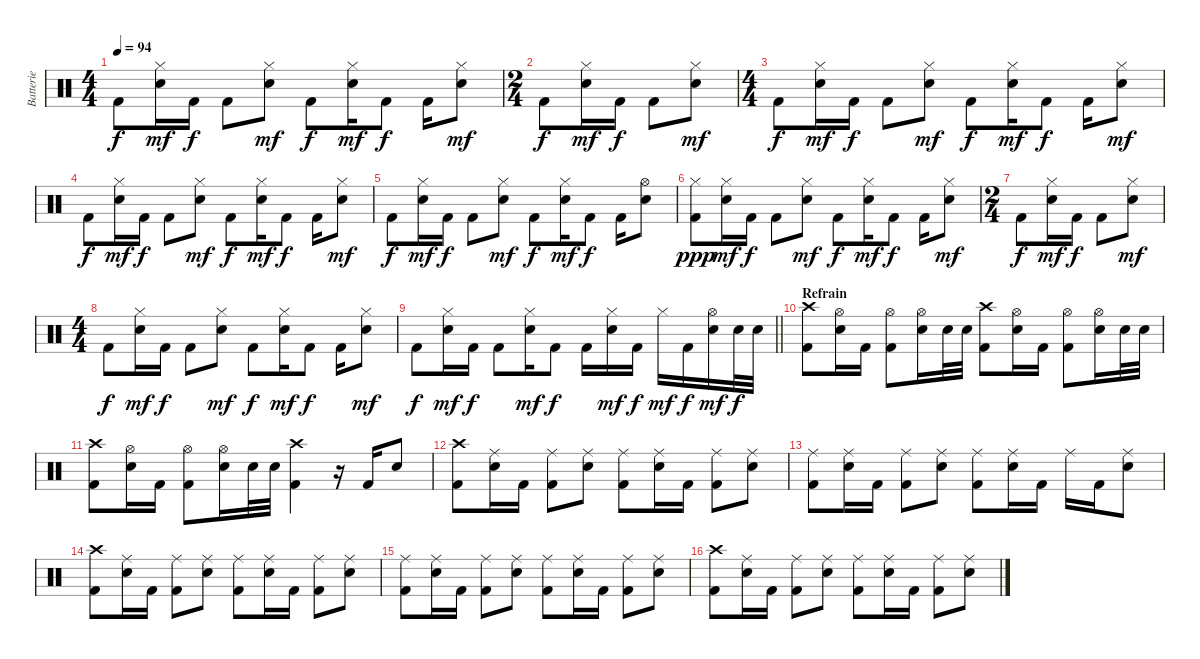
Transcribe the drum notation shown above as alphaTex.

\track ("Batterie" "Batterie") {instrument percussion}
\staff {score}
\articulation defaults
\ts (4 4)
\tempo 94
\clef neutral
\ks c "Kick (hit) 2".8{dy f}
("Hi-Hat (closed)" "Electric Snare (hit)").16{dy mf} "Kick (hit) 2".16{dy f} "Kick (hit) 2".8 ("Hi-Hat (closed)" "Electric Snare (hit)").8{dy mf} "Kick (hit) 2".8{dy f} ("Hi-Hat (closed)" "Electric Snare (hit)").16{dy mf} "Kick (hit) 2".8{dy f} "Kick (hit) 2".16 ("Hi-Hat (closed)" "Electric Snare (hit)").8{dy mf} |
\ts (2 4)
"Kick (hit) 2".8{dy f} ("Hi-Hat (closed)" "Electric Snare (hit)").16{dy mf} "Kick (hit) 2".16{dy f} "Kick (hit) 2".8 ("Hi-Hat (closed)" "Electric Snare (hit)").8{dy mf} |
\ts (4 4)
"Kick (hit) 2".8{dy f} ("Hi-Hat (closed)" "Electric Snare (hit)").16{dy mf} "Kick (hit) 2".16{dy f} "Kick (hit) 2".8 ("Hi-Hat (closed)" "Electric Snare (hit)").8{dy mf} "Kick (hit) 2".8{dy f} ("Hi-Hat (closed)" "Electric Snare (hit)").16{dy mf} "Kick (hit) 2".8{dy f} "Kick (hit) 2".16 ("Hi-Hat (closed)" "Electric Snare (hit)").8{dy mf} |
"Kick (hit) 2".8{dy f} ("Hi-Hat (closed)" "Electric Snare (hit)").16{dy mf} "Kick (hit) 2".16{dy f} "Kick (hit) 2".8 ("Hi-Hat (closed)" "Electric Snare (hit)").8{dy mf} "Kick (hit) 2".8{dy f} ("Hi-Hat (closed)" "Electric Snare (hit)").16{dy mf} "Kick (hit) 2".8{dy f} "Kick (hit) 2".16 ("Hi-Hat (closed)" "Electric Snare (hit)").8{dy mf} |
"Kick (hit) 2".8{dy f} ("Hi-Hat (closed)" "Electric Snare (hit)").16{dy mf} "Kick (hit) 2".16{dy f} "Kick (hit) 2".8 ("Hi-Hat (closed)" "Electric Snare (hit)").8{dy mf} "Kick (hit) 2".8{dy f} ("Hi-Hat (closed)" "Electric Snare (hit)").16{dy mf} "Kick (hit) 2".8{dy f} "Kick (hit) 2".16 ("Hi-Hat (open)" "Electric Snare (hit)").8 |
("Hi-Hat (closed)" "Kick (hit) 2").8{dy ppp} ("Hi-Hat (closed)" "Electric Snare (hit)").16{dy mf} "Kick (hit) 2".16{dy f} "Kick (hit) 2".8 ("Hi-Hat (closed)" "Electric Snare (hit)").8{dy mf} "Kick (hit) 2".8{dy f} ("Hi-Hat (closed)" "Electric Snare (hit)").16{dy mf} "Kick (hit) 2".8{dy f} "Kick (hit) 2".16 ("Hi-Hat (closed)" "Electric Snare (hit)").8{dy mf} |
\ts (2 4)
"Kick (hit) 2".8{dy f} ("Hi-Hat (closed)" "Electric Snare (hit)").16{dy mf} "Kick (hit) 2".16{dy f} "Kick (hit) 2".8 ("Hi-Hat (closed)" "Electric Snare (hit)").8{dy mf} |
\ts (4 4)
"Kick (hit) 2".8{dy f} ("Hi-Hat (closed)" "Electric Snare (hit)").16{dy mf} "Kick (hit) 2".16{dy f} "Kick (hit) 2".8 ("Hi-Hat (closed)" "Electric Snare (hit)").8{dy mf} "Kick (hit) 2".8{dy f} ("Hi-Hat (closed)" "Electric Snare (hit)").16{dy mf} "Kick (hit) 2".8{dy f} "Kick (hit) 2".16 ("Hi-Hat (closed)" "Electric Snare (hit)").8{dy mf} |
\barLineRight lightlight "Kick (hit) 2".8{dy f}
("Hi-Hat (closed)" "Electric Snare (hit)").16{dy mf} "Kick (hit) 2".16{dy f} "Kick (hit) 2".8 ("Hi-Hat (closed)" "Electric Snare (hit)").16{dy mf} "Kick (hit) 2".8{dy f} "Kick (hit) 2".16 ("Hi-Hat (closed)" "Electric Snare (hit)").16{dy mf} "Kick (hit) 2".16{dy f} "Hi-Hat (closed)".16{dy mf} "Kick (hit) 2".16{dy f} ("Hi-Hat (open)" "Electric Snare (hit)").16{dy mf} "Electric Snare (hit)".32{dy f} "Electric Snare (hit)".32 |
\section ("" "Refrain")
("Crash high (hit)" "Kick (hit) 2").8 ("Hi-Hat (open)" "Electric Snare (hit)").16 "Kick (hit) 2".16 ("Hi-Hat (open)" "Kick (hit) 2").8 ("Hi-Hat (open)" "Electric Snare (hit)").16 "Electric Snare (hit)".32 "Electric Snare (hit)".32 ("Crash high (hit)" "Kick (hit) 2").8 ("Hi-Hat (open)" "Electric Snare (hit)").16 "Kick (hit) 2".16 ("Hi-Hat (open)" "Kick (hit) 2").8 ("Hi-Hat (open)" "Electric Snare (hit)").16 "Electric Snare (hit)".32 "Electric Snare (hit)".32 |
("Crash high (hit)" "Kick (hit) 2").8 ("Hi-Hat (open)" "Electric Snare (hit)").16 "Kick (hit) 2".16 ("Hi-Hat (open)" "Kick (hit) 2").8 ("Hi-Hat (open)" "Electric Snare (hit)").16 "Electric Snare (hit)".32 "Electric Snare (hit)".32 ("Crash high (hit)" "Kick (hit) 2").4 r.16 "Kick (hit) 2".16 "Electric Snare (hit)".8 |
("Crash high (hit)" "Kick (hit) 2").8 ("Ride (middle)" "Electric Snare (hit)").16 "Kick (hit) 2".16 ("Ride (middle)" "Kick (hit) 2").8 ("Ride (middle)" "Electric Snare (hit)").8 ("Ride (middle)" "Kick (hit) 2").8 ("Ride (middle)" "Electric Snare (hit)").16 "Kick (hit) 2".16 ("Ride (middle)" "Kick (hit) 2").8 ("Ride (middle)" "Electric Snare (hit)").8 |
("Ride (middle)" "Kick (hit) 2").8 ("Ride (middle)" "Electric Snare (hit)").16 "Kick (hit) 2".16 ("Ride (middle)" "Kick (hit) 2").8 ("Ride (middle)" "Electric Snare (hit)").8 ("Ride (middle)" "Kick (hit) 2").8 ("Ride (middle)" "Electric Snare (hit)").16 "Kick (hit) 2".16 "Ride (middle)".16 "Kick (hit) 2".16 ("Ride (middle)" "Electric Snare (hit)").8 |
("Crash high (hit)" "Kick (hit) 2").8 ("Ride (middle)" "Electric Snare (hit)").16 "Kick (hit) 2".16 ("Ride (middle)" "Kick (hit) 2").8 ("Ride (middle)" "Electric Snare (hit)").8 ("Ride (middle)" "Kick (hit) 2").8 ("Ride (middle)" "Electric Snare (hit)").16 "Kick (hit) 2".16 ("Ride (middle)" "Kick (hit) 2").8 ("Ride (middle)" "Electric Snare (hit)").8 |
("Ride (middle)" "Kick (hit) 2").8 ("Ride (middle)" "Electric Snare (hit)").16 "Kick (hit) 2".16 ("Ride (middle)" "Kick (hit) 2").8 ("Ride (middle)" "Electric Snare (hit)").8 ("Ride (middle)" "Kick (hit) 2").8 ("Ride (middle)" "Electric Snare (hit)").16 "Kick (hit) 2".16 ("Ride (middle)" "Kick (hit) 2").8 ("Ride (middle)" "Electric Snare (hit)").8 |
("Crash high (hit)" "Kick (hit) 2").8 ("Ride (middle)" "Electric Snare (hit)").16 "Kick (hit) 2".16 ("Ride (middle)" "Kick (hit) 2").8 ("Ride (middle)" "Electric Snare (hit)").8 ("Ride (middle)" "Kick (hit) 2").8 ("Ride (middle)" "Electric Snare (hit)").16 "Kick (hit) 2".16 ("Ride (middle)" "Kick (hit) 2").8 ("Ride (middle)" "Electric Snare (hit)").8
